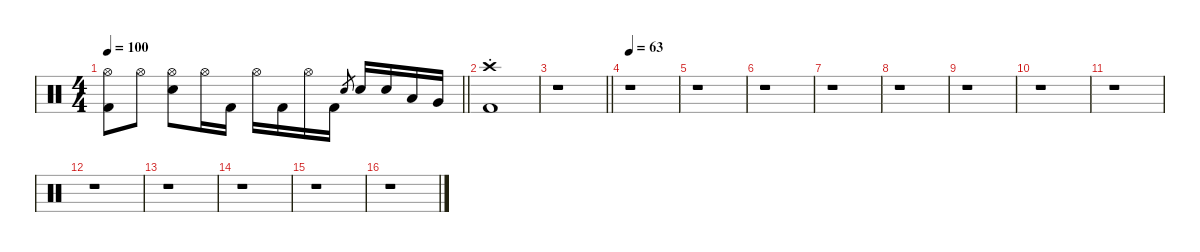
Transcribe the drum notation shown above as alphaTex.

\defaultSystemsLayout 4
\hideDynamics
\bracketExtendMode nobrackets
\singleTrackTrackNamePolicy hidden
\multiTrackTrackNamePolicy hidden
\firstSystemTrackNameMode fullname
\firstSystemTrackNameOrientation horizontal
\otherSystemsTrackNameOrientation horizontal
\track ("Drums" "drm.") {instrument percussion}
\staff {score}
\articulation defaults
\ts (4 4)
\tempo 100
\clef neutral
\barLineRight lightlight
\ks c
("Hi-Hat (open)" "Kick (hit) 2").8{dy f beam Down} "Hi-Hat (open)".8{beam Down beam split} ("Hi-Hat (open)" "Snare (hit) 2").8{beam Down beam merge} "Hi-Hat (open)".16{beam Down beam merge} "Kick (hit) 2".16{beam Down beam split} "Hi-Hat (open)".16{beam Down} "Kick (hit) 2".16{beam Down} "Hi-Hat (open)".16{beam Down} "Kick (hit) 2".16{beam Down} "Electric Snare (hit)".8{gr dy mf beam Up} "Snare (hit) 2".16{dy ff beam Up beam merge} "Snare (hit) 2".16{beam Up beam merge} "Low Tom (hit)".16{dy fff beam Up beam merge} "Very Low Tom (hit)".16{dy ff beam Up} |
("Crash high (hit)"{st} "Kick (hit) 2"{st}).1{beam Down} |
\barLineRight lightlight
r.1{beam Down} |
\tempo 63
\ks aminor
r.1{beam Down} |
r.1{beam Down} |
r.1{beam Down} |
r.1{beam Down} |
r.1{beam Down} |
r.1{beam Down} |
r.1{beam Down} |
r.1{beam Down} |
r.1{beam Down} |
r.1{beam Down} |
r.1{beam Down} |
r.1{beam Down} |
r.1{beam Down}
